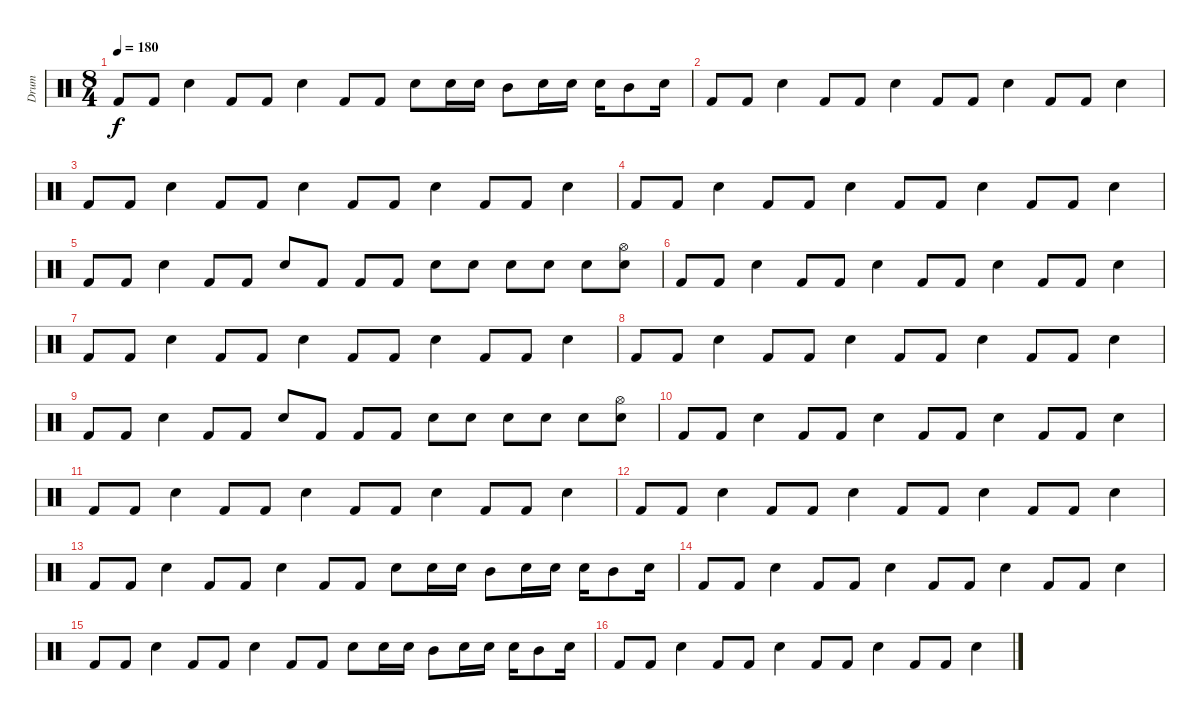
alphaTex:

\track ("Drum" "Drum") {instrument percussion}
\staff {score}
\articulation defaults
\ts (8 4)
\tempo 180
\clef neutral
\ks c "Kick (hit) 2".8{dy f} "Kick (hit) 2".8 "Electric Snare (hit)".4 "Kick (hit) 2".8 "Kick (hit) 2".8 "Electric Snare (hit)".4 "Kick (hit) 2".8 "Kick (hit) 2".8 "Electric Snare (hit)".8 "Electric Snare (hit)".16 "Electric Snare (hit)".16 "Mid Tom (hit)".8 "Electric Snare (hit)".16 "Electric Snare (hit)".16 "Electric Snare (hit)".16 "Mid Tom (hit)".8 "Electric Snare (hit)".16
|
"Kick (hit) 2".8 "Kick (hit) 2".8 "Electric Snare (hit)".4 "Kick (hit) 2".8 "Kick (hit) 2".8 "Electric Snare (hit)".4 "Kick (hit) 2".8 "Kick (hit) 2".8 "Electric Snare (hit)".4 "Kick (hit) 2".8 "Kick (hit) 2".8 "Electric Snare (hit)".4 |
"Kick (hit) 2".8 "Kick (hit) 2".8 "Electric Snare (hit)".4 "Kick (hit) 2".8 "Kick (hit) 2".8 "Electric Snare (hit)".4 "Kick (hit) 2".8 "Kick (hit) 2".8 "Electric Snare (hit)".4 "Kick (hit) 2".8 "Kick (hit) 2".8 "Electric Snare (hit)".4 |
"Kick (hit) 2".8 "Kick (hit) 2".8 "Electric Snare (hit)".4 "Kick (hit) 2".8 "Kick (hit) 2".8 "Electric Snare (hit)".4 "Kick (hit) 2".8 "Kick (hit) 2".8 "Electric Snare (hit)".4 "Kick (hit) 2".8 "Kick (hit) 2".8 "Electric Snare (hit)".4 |
"Kick (hit) 2".8 "Kick (hit) 2".8 "Electric Snare (hit)".4 "Kick (hit) 2".8 "Kick (hit) 2".8 "Electric Snare (hit)".8 "Kick (hit) 2".8 "Kick (hit) 2".8 "Kick (hit) 2".8 "Electric Snare (hit)".8 "Electric Snare (hit)".8 "Electric Snare (hit)".8 "Electric Snare (hit)".8 "Electric Snare (hit)".8 ("Electric Snare (hit)" "Hi-Hat (open)").8 |
"Kick (hit) 2".8 "Kick (hit) 2".8 "Electric Snare (hit)".4 "Kick (hit) 2".8 "Kick (hit) 2".8 "Electric Snare (hit)".4 "Kick (hit) 2".8 "Kick (hit) 2".8 "Electric Snare (hit)".4 "Kick (hit) 2".8 "Kick (hit) 2".8 "Electric Snare (hit)".4 |
"Kick (hit) 2".8 "Kick (hit) 2".8 "Electric Snare (hit)".4 "Kick (hit) 2".8 "Kick (hit) 2".8 "Electric Snare (hit)".4 "Kick (hit) 2".8 "Kick (hit) 2".8 "Electric Snare (hit)".4 "Kick (hit) 2".8 "Kick (hit) 2".8 "Electric Snare (hit)".4 |
"Kick (hit) 2".8 "Kick (hit) 2".8 "Electric Snare (hit)".4 "Kick (hit) 2".8 "Kick (hit) 2".8 "Electric Snare (hit)".4 "Kick (hit) 2".8 "Kick (hit) 2".8 "Electric Snare (hit)".4 "Kick (hit) 2".8 "Kick (hit) 2".8 "Electric Snare (hit)".4 |
"Kick (hit) 2".8 "Kick (hit) 2".8 "Electric Snare (hit)".4 "Kick (hit) 2".8 "Kick (hit) 2".8 "Electric Snare (hit)".8 "Kick (hit) 2".8 "Kick (hit) 2".8 "Kick (hit) 2".8 "Electric Snare (hit)".8 "Electric Snare (hit)".8 "Electric Snare (hit)".8 "Electric Snare (hit)".8 "Electric Snare (hit)".8 ("Electric Snare (hit)" "Hi-Hat (open)").8 |
"Kick (hit) 2".8 "Kick (hit) 2".8 "Electric Snare (hit)".4 "Kick (hit) 2".8 "Kick (hit) 2".8 "Electric Snare (hit)".4 "Kick (hit) 2".8 "Kick (hit) 2".8 "Electric Snare (hit)".4 "Kick (hit) 2".8 "Kick (hit) 2".8 "Electric Snare (hit)".4 |
"Kick (hit) 2".8 "Kick (hit) 2".8 "Electric Snare (hit)".4 "Kick (hit) 2".8 "Kick (hit) 2".8 "Electric Snare (hit)".4 "Kick (hit) 2".8 "Kick (hit) 2".8 "Electric Snare (hit)".4 "Kick (hit) 2".8 "Kick (hit) 2".8 "Electric Snare (hit)".4 |
"Kick (hit) 2".8 "Kick (hit) 2".8 "Electric Snare (hit)".4 "Kick (hit) 2".8 "Kick (hit) 2".8 "Electric Snare (hit)".4 "Kick (hit) 2".8 "Kick (hit) 2".8 "Electric Snare (hit)".4 "Kick (hit) 2".8 "Kick (hit) 2".8 "Electric Snare (hit)".4 |
"Kick (hit) 2".8 "Kick (hit) 2".8 "Electric Snare (hit)".4 "Kick (hit) 2".8 "Kick (hit) 2".8 "Electric Snare (hit)".4 "Kick (hit) 2".8 "Kick (hit) 2".8 "Electric Snare (hit)".8 "Electric Snare (hit)".16 "Electric Snare (hit)".16 "Mid Tom (hit)".8 "Electric Snare (hit)".16 "Electric Snare (hit)".16 "Electric Snare (hit)".16 "Mid Tom (hit)".8 "Electric Snare (hit)".16 |
"Kick (hit) 2".8 "Kick (hit) 2".8 "Electric Snare (hit)".4 "Kick (hit) 2".8 "Kick (hit) 2".8 "Electric Snare (hit)".4 "Kick (hit) 2".8 "Kick (hit) 2".8 "Electric Snare (hit)".4 "Kick (hit) 2".8 "Kick (hit) 2".8 "Electric Snare (hit)".4 |
"Kick (hit) 2".8 "Kick (hit) 2".8 "Electric Snare (hit)".4 "Kick (hit) 2".8 "Kick (hit) 2".8 "Electric Snare (hit)".4 "Kick (hit) 2".8 "Kick (hit) 2".8 "Electric Snare (hit)".8 "Electric Snare (hit)".16 "Electric Snare (hit)".16 "Mid Tom (hit)".8 "Electric Snare (hit)".16 "Electric Snare (hit)".16 "Electric Snare (hit)".16 "Mid Tom (hit)".8 "Electric Snare (hit)".16 |
"Kick (hit) 2".8 "Kick (hit) 2".8 "Electric Snare (hit)".4 "Kick (hit) 2".8 "Kick (hit) 2".8 "Electric Snare (hit)".4 "Kick (hit) 2".8 "Kick (hit) 2".8 "Electric Snare (hit)".4 "Kick (hit) 2".8 "Kick (hit) 2".8 "Electric Snare (hit)".4
